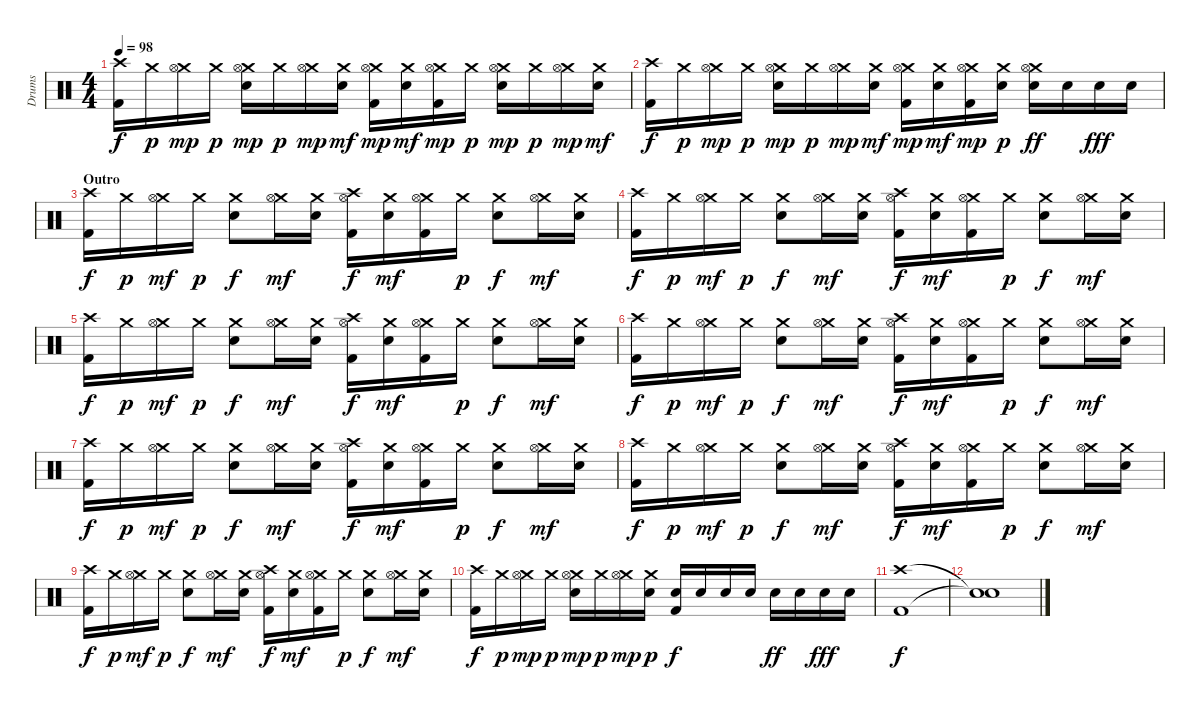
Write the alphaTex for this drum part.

\track ("Drums" "Drums") {instrument percussion}
\staff {score}
\articulation defaults
\ts (4 4)
\tempo 98
\clef neutral
\ks c
("Crash high (hit)" "Kick (hit) 2").16{dy f} "Crash medium (hit)".16{dy p} ("Crash medium (hit)" "Hi-Hat (open)").16{dy mp} "Crash medium (hit)".16{dy p} ("Crash medium (hit)" "Hi-Hat (open)" "Snare (hit) 2").16{dy mp} "Crash medium (hit)".16{dy p} ("Crash medium (hit)" "Hi-Hat (open)").16{dy mp} ("Crash medium (hit)" "Snare (hit) 2").16{dy mf} ("Crash medium (hit)" "Hi-Hat (open)" "Kick (hit) 2").16{dy mp} ("Crash medium (hit)" "Snare (hit) 2").16{dy mf} ("Crash medium (hit)" "Hi-Hat (open)" "Kick (hit) 2").16{dy mp} "Crash medium (hit)".16{dy p} ("Crash medium (hit)" "Hi-Hat (open)" "Snare (hit) 2").16{dy mp} "Crash medium (hit)".16{dy p} ("Crash medium (hit)" "Hi-Hat (open)").16{dy mp} ("Crash medium (hit)" "Snare (hit) 2").16{dy mf} |
("Crash high (hit)" "Kick (hit) 2").16{dy f} "Crash medium (hit)".16{dy p} ("Crash medium (hit)" "Hi-Hat (open)").16{dy mp} "Crash medium (hit)".16{dy p} ("Crash medium (hit)" "Hi-Hat (open)" "Snare (hit) 2").16{dy mp} "Crash medium (hit)".16{dy p} ("Crash medium (hit)" "Hi-Hat (open)").16{dy mp} ("Crash medium (hit)" "Snare (hit) 2").16{dy mf} ("Crash medium (hit)" "Hi-Hat (open)" "Kick (hit) 2").16{dy mp} ("Crash medium (hit)" "Snare (hit) 2").16{dy mf} ("Crash medium (hit)" "Hi-Hat (open)" "Kick (hit) 2").16{dy mp} ("Crash medium (hit)" "Snare (hit) 2").16{dy p} ("Crash medium (hit)" "Hi-Hat (open)" "Snare (hit) 2").16{dy ff} "Snare (hit) 2".16 "Snare (hit) 2".16{dy fff} "Snare (hit) 2".16 |
\section ("" "Outro")
("Crash high (hit)" "Kick (hit) 2").16{dy f} "Crash medium (hit)".16{dy p} ("Crash medium (hit)" "Hi-Hat (open)").16{dy mf} "Crash medium (hit)".16{dy p} ("Crash medium (hit)" "Snare (hit) 2").8{dy f} ("Crash medium (hit)" "Hi-Hat (open)").16{dy mf} ("Crash medium (hit)" "Snare (hit) 2").16 ("Crash high (hit)" "Hi-Hat (open)" "Kick (hit) 2").16{dy f} ("Crash medium (hit)" "Snare (hit) 2").16{dy mf} ("Crash medium (hit)" "Hi-Hat (open)" "Kick (hit) 2").16 "Crash medium (hit)".16{dy p} ("Crash medium (hit)" "Snare (hit) 2").8{dy f} ("Crash medium (hit)" "Hi-Hat (open)").16{dy mf} ("Crash medium (hit)" "Snare (hit) 2").16 |
("Crash high (hit)" "Kick (hit) 2").16{dy f} "Crash medium (hit)".16{dy p} ("Crash medium (hit)" "Hi-Hat (open)").16{dy mf} "Crash medium (hit)".16{dy p} ("Crash medium (hit)" "Snare (hit) 2").8{dy f} ("Crash medium (hit)" "Hi-Hat (open)").16{dy mf} ("Crash medium (hit)" "Snare (hit) 2").16 ("Crash high (hit)" "Hi-Hat (open)" "Kick (hit) 2").16{dy f} ("Crash medium (hit)" "Snare (hit) 2").16{dy mf} ("Crash medium (hit)" "Hi-Hat (open)" "Kick (hit) 2").16 "Crash medium (hit)".16{dy p} ("Crash medium (hit)" "Snare (hit) 2").8{dy f} ("Crash medium (hit)" "Hi-Hat (open)").16{dy mf} ("Crash medium (hit)" "Snare (hit) 2").16 |
("Crash high (hit)" "Kick (hit) 2").16{dy f} "Crash medium (hit)".16{dy p} ("Crash medium (hit)" "Hi-Hat (open)").16{dy mf} "Crash medium (hit)".16{dy p} ("Crash medium (hit)" "Snare (hit) 2").8{dy f} ("Crash medium (hit)" "Hi-Hat (open)").16{dy mf} ("Crash medium (hit)" "Snare (hit) 2").16 ("Crash high (hit)" "Hi-Hat (open)" "Kick (hit) 2").16{dy f} ("Crash medium (hit)" "Snare (hit) 2").16{dy mf} ("Crash medium (hit)" "Hi-Hat (open)" "Kick (hit) 2").16 "Crash medium (hit)".16{dy p} ("Crash medium (hit)" "Snare (hit) 2").8{dy f} ("Crash medium (hit)" "Hi-Hat (open)").16{dy mf} ("Crash medium (hit)" "Snare (hit) 2").16 |
("Crash high (hit)" "Kick (hit) 2").16{dy f} "Crash medium (hit)".16{dy p} ("Crash medium (hit)" "Hi-Hat (open)").16{dy mf} "Crash medium (hit)".16{dy p} ("Crash medium (hit)" "Snare (hit) 2").8{dy f} ("Crash medium (hit)" "Hi-Hat (open)").16{dy mf} ("Crash medium (hit)" "Snare (hit) 2").16 ("Crash high (hit)" "Hi-Hat (open)" "Kick (hit) 2").16{dy f} ("Crash medium (hit)" "Snare (hit) 2").16{dy mf} ("Crash medium (hit)" "Hi-Hat (open)" "Kick (hit) 2").16 "Crash medium (hit)".16{dy p} ("Crash medium (hit)" "Snare (hit) 2").8{dy f} ("Crash medium (hit)" "Hi-Hat (open)").16{dy mf} ("Crash medium (hit)" "Snare (hit) 2").16 |
("Crash high (hit)" "Kick (hit) 2").16{dy f} "Crash medium (hit)".16{dy p} ("Crash medium (hit)" "Hi-Hat (open)").16{dy mf} "Crash medium (hit)".16{dy p} ("Crash medium (hit)" "Snare (hit) 2").8{dy f} ("Crash medium (hit)" "Hi-Hat (open)").16{dy mf} ("Crash medium (hit)" "Snare (hit) 2").16 ("Crash high (hit)" "Hi-Hat (open)" "Kick (hit) 2").16{dy f} ("Crash medium (hit)" "Snare (hit) 2").16{dy mf} ("Crash medium (hit)" "Hi-Hat (open)" "Kick (hit) 2").16 "Crash medium (hit)".16{dy p} ("Crash medium (hit)" "Snare (hit) 2").8{dy f} ("Crash medium (hit)" "Hi-Hat (open)").16{dy mf} ("Crash medium (hit)" "Snare (hit) 2").16 |
("Crash high (hit)" "Kick (hit) 2").16{dy f} "Crash medium (hit)".16{dy p} ("Crash medium (hit)" "Hi-Hat (open)").16{dy mf} "Crash medium (hit)".16{dy p} ("Crash medium (hit)" "Snare (hit) 2").8{dy f} ("Crash medium (hit)" "Hi-Hat (open)").16{dy mf} ("Crash medium (hit)" "Snare (hit) 2").16 ("Crash high (hit)" "Hi-Hat (open)" "Kick (hit) 2").16{dy f} ("Crash medium (hit)" "Snare (hit) 2").16{dy mf} ("Crash medium (hit)" "Hi-Hat (open)" "Kick (hit) 2").16 "Crash medium (hit)".16{dy p} ("Crash medium (hit)" "Snare (hit) 2").8{dy f} ("Crash medium (hit)" "Hi-Hat (open)").16{dy mf} ("Crash medium (hit)" "Snare (hit) 2").16 |
("Crash high (hit)" "Kick (hit) 2").16{dy f} "Crash medium (hit)".16{dy p} ("Crash medium (hit)" "Hi-Hat (open)").16{dy mf} "Crash medium (hit)".16{dy p} ("Crash medium (hit)" "Snare (hit) 2").8{dy f} ("Crash medium (hit)" "Hi-Hat (open)").16{dy mf} ("Crash medium (hit)" "Snare (hit) 2").16 ("Crash high (hit)" "Hi-Hat (open)" "Kick (hit) 2").16{dy f} ("Crash medium (hit)" "Snare (hit) 2").16{dy mf} ("Crash medium (hit)" "Hi-Hat (open)" "Kick (hit) 2").16 "Crash medium (hit)".16{dy p} ("Crash medium (hit)" "Snare (hit) 2").8{dy f} ("Crash medium (hit)" "Hi-Hat (open)").16{dy mf} ("Crash medium (hit)" "Snare (hit) 2").16 |
("Crash high (hit)" "Kick (hit) 2").16{dy f} "Crash medium (hit)".16{dy p} ("Crash medium (hit)" "Hi-Hat (open)").16{dy mp} "Crash medium (hit)".16{dy p} ("Crash medium (hit)" "Hi-Hat (open)" "Snare (hit) 2").16{dy mp} "Crash medium (hit)".16{dy p} ("Crash medium (hit)" "Hi-Hat (open)").16{dy mp} ("Crash medium (hit)" "Snare (hit) 2").16{dy p} ("Snare (hit) 2" "Kick (hit) 2").16{dy f} "Snare (hit) 2".16 "Snare (hit) 2".16 "Snare (hit) 2".16 "Snare (hit) 2".16{dy ff} "Snare (hit) 2".16 "Snare (hit) 2".16{dy fff} "Snare (hit) 2".16 |
("Crash high (hit)" "Kick (hit) 2").1{dy f} |
("Snare (hit)"{t} "Snare (hit)"{t}).1
